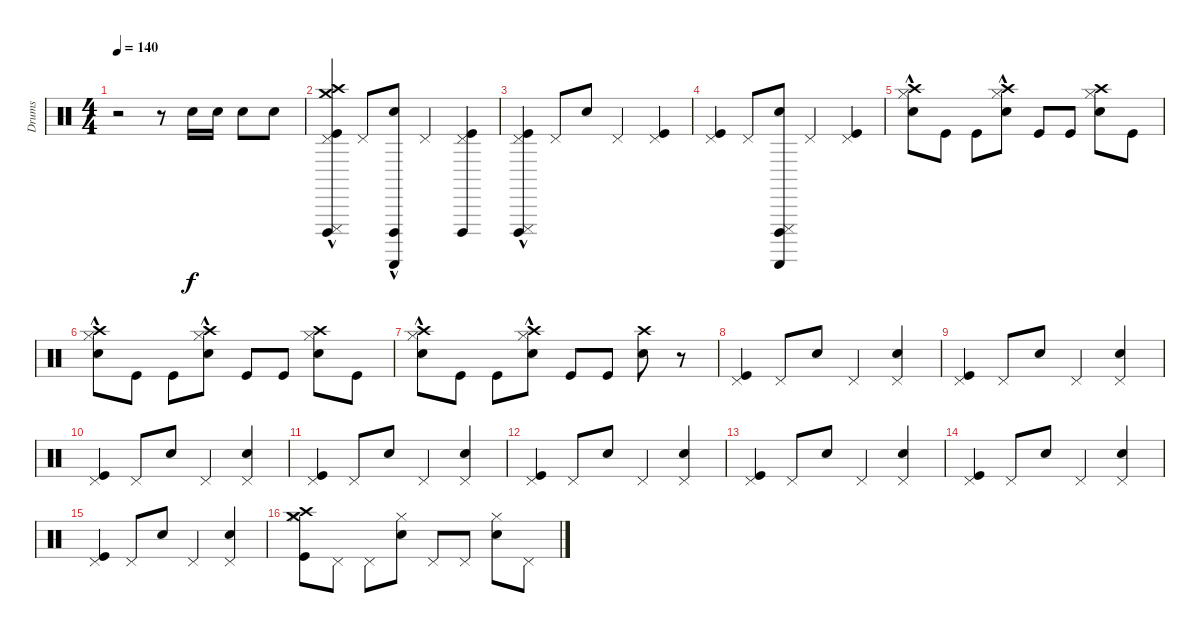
\track ("Drums" "Drums") {instrument percussion}
\staff {score}
\articulation defaults
\ts (4 4)
\tempo 140
\clef neutral
\ks c
r.2{dy f} r.8 "Electric Snare (hit)".16 "Electric Snare (hit)".16 "Electric Snare (hit)".8 "Electric Snare (hit)".8 |
("Crash medium (hit)" "Crash high (hit)" "Pedal Hi-Hat (hit)" "Kick (hit)" "Cuica (open)"{hac} "Cuica (mute)"{hac}).4 "Pedal Hi-Hat (hit)".8 ("Guiro (scrap-return)"{hac} "Electric Snare (hit)" "Cuica (open)").8 "Pedal Hi-Hat (hit)".4 ("Kick (hit)" "Pedal Hi-Hat (hit)" "Cuica (open)").4 |
("Cuica (mute)" "Cuica (open)"{hac} "Pedal Hi-Hat (hit)" "Kick (hit)").4 "Pedal Hi-Hat (hit)".8 "Electric Snare (hit)".8 "Pedal Hi-Hat (hit)".4 ("Pedal Hi-Hat (hit)" "Kick (hit)").4 |
("Kick (hit)" "Pedal Hi-Hat (hit)").4 "Pedal Hi-Hat (hit)".8 ("Cuica (open)" "Electric Snare (hit)" "Cuica (mute)" "Guiro (scrap-return)").8 "Pedal Hi-Hat (hit)".4 ("Kick (hit)" "Pedal Hi-Hat (hit)").4 |
("Electric Snare (hit)" "Hi-Hat (closed)"{hac} "Crash high (hit)").8 "Kick (hit)".8 "Kick (hit)".8 ("Crash high (hit)" "Electric Snare (hit)" "Hi-Hat (closed)"{hac}).8 "Kick (hit)".8 "Kick (hit)".8 ("Hi-Hat (closed)" "Electric Snare (hit)" "Crash high (hit)").8 "Kick (hit)".8 |
("Hi-Hat (closed)"{hac} "Electric Snare (hit)" "Crash high (hit)").8 "Kick (hit)".8 "Kick (hit)".8 ("Hi-Hat (closed)"{hac} "Crash high (hit)" "Electric Snare (hit)").8 "Kick (hit)".8 "Kick (hit)".8 ("Electric Snare (hit)" "Hi-Hat (closed)" "Crash high (hit)").8 "Kick (hit)".8 |
("Crash high (hit)" "Hi-Hat (closed)"{hac} "Electric Snare (hit)").8 "Kick (hit)".8 "Kick (hit)".8 ("Hi-Hat (closed)"{hac} "Electric Snare (hit)" "Crash high (hit)").8 "Kick (hit)".8 "Kick (hit)".8 ("Electric Snare (hit)" "Crash high (hit)").8 r.8 |
("Pedal Hi-Hat (hit)" "Kick (hit)").4 "Pedal Hi-Hat (hit)".8 "Electric Snare (hit)".8 "Pedal Hi-Hat (hit)".4 ("Electric Snare (hit)" "Pedal Hi-Hat (hit)").4 |
("Pedal Hi-Hat (hit)" "Kick (hit)").4 "Pedal Hi-Hat (hit)".8 "Electric Snare (hit)".8 "Pedal Hi-Hat (hit)".4 ("Pedal Hi-Hat (hit)" "Electric Snare (hit)").4 |
("Pedal Hi-Hat (hit)" "Kick (hit)").4 "Pedal Hi-Hat (hit)".8 "Electric Snare (hit)".8 "Pedal Hi-Hat (hit)".4 ("Pedal Hi-Hat (hit)" "Electric Snare (hit)").4 |
("Pedal Hi-Hat (hit)" "Kick (hit)").4 "Pedal Hi-Hat (hit)".8 "Electric Snare (hit)".8 "Pedal Hi-Hat (hit)".4 ("Pedal Hi-Hat (hit)" "Electric Snare (hit)").4 |
("Pedal Hi-Hat (hit)" "Kick (hit)").4 "Pedal Hi-Hat (hit)".8 "Electric Snare (hit)".8 "Pedal Hi-Hat (hit)".4 ("Electric Snare (hit)" "Pedal Hi-Hat (hit)").4 |
("Pedal Hi-Hat (hit)" "Kick (hit)").4 "Pedal Hi-Hat (hit)".8 "Electric Snare (hit)".8 "Pedal Hi-Hat (hit)".4 ("Pedal Hi-Hat (hit)" "Electric Snare (hit)").4 |
("Pedal Hi-Hat (hit)" "Kick (hit)").4 "Pedal Hi-Hat (hit)".8 "Electric Snare (hit)".8 "Pedal Hi-Hat (hit)".4 ("Pedal Hi-Hat (hit)" "Electric Snare (hit)").4 |
("Pedal Hi-Hat (hit)" "Kick (hit)").4 "Pedal Hi-Hat (hit)".8 "Electric Snare (hit)".8 "Pedal Hi-Hat (hit)".4 ("Pedal Hi-Hat (hit)" "Electric Snare (hit)").4 |
("Crash high (hit)" "Crash medium (hit)" "Hi-Hat (closed)" "Kick (hit)").8 "Pedal Hi-Hat (hit)".8 "Pedal Hi-Hat (hit)".8 ("Hi-Hat (closed)" "Electric Snare (hit)").8 "Pedal Hi-Hat (hit)".8 "Pedal Hi-Hat (hit)".8 ("Electric Snare (hit)" "Hi-Hat (closed)").8 "Pedal Hi-Hat (hit)".8
